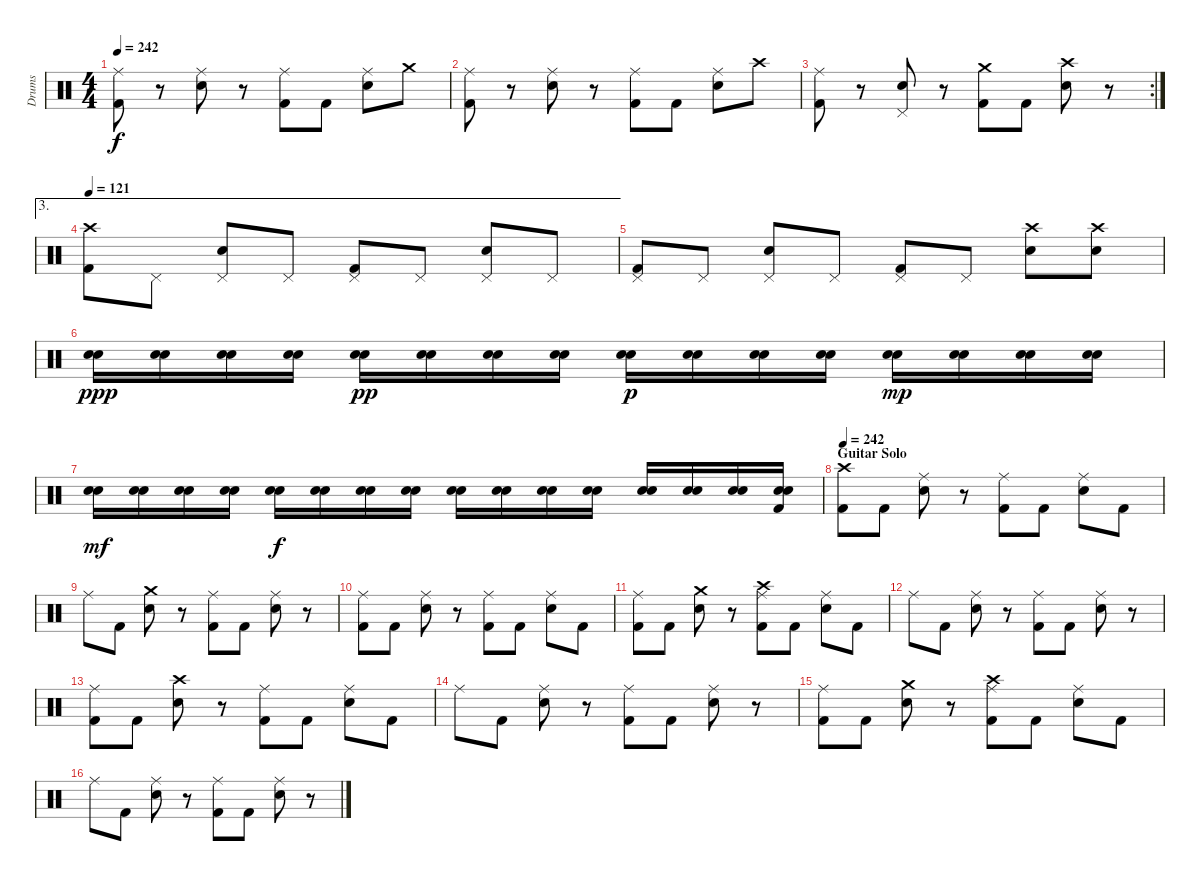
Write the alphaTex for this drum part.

\track ("Drums" "Drums") {instrument percussion}
\staff {score}
\articulation defaults
\ts (4 4)
\tempo 242
\clef neutral
\ks c
("Ride (middle)" "Kick (hit) 2").8{dy f} r.8 ("Ride (middle)" "Electric Snare (hit)").8 r.8 ("Ride (middle)" "Kick (hit) 2").8 "Kick (hit) 2".8 ("Ride (middle)" "Electric Snare (hit)").8 "Crash medium (hit)".8 |
("Ride (middle)" "Kick (hit) 2").8 r.8 ("Ride (middle)" "Electric Snare (hit)").8 r.8 ("Ride (middle)" "Kick (hit) 2").8 "Kick (hit) 2".8 ("Ride (middle)" "Electric Snare (hit)").8 "Crash high (hit)".8 |
\rc 2
("Ride (middle)" "Kick (hit) 2").8 r.8 ("Pedal Hi-Hat (hit)" "Electric Snare (hit)").8 r.8 ("Crash medium (hit)" "Kick (hit) 2").8 "Kick (hit) 2".8 ("Crash high (hit)" "Electric Snare (hit)").8 r.8 |
\ae 3
\tempo 121
("Crash high (hit)" "Kick (hit) 2").8 "Pedal Hi-Hat (hit)".8 ("Pedal Hi-Hat (hit)" "Electric Snare (hit)").8 "Pedal Hi-Hat (hit)".8 ("Pedal Hi-Hat (hit)" "Kick (hit) 2").8 "Pedal Hi-Hat (hit)".8 ("Pedal Hi-Hat (hit)" "Electric Snare (hit)").8 "Pedal Hi-Hat (hit)".8 |
("Pedal Hi-Hat (hit)" "Kick (hit) 2").8 "Pedal Hi-Hat (hit)".8 ("Pedal Hi-Hat (hit)" "Electric Snare (hit)").8 "Pedal Hi-Hat (hit)".8 ("Pedal Hi-Hat (hit)" "Kick (hit) 2").8 "Pedal Hi-Hat (hit)".8 ("Crash high (hit)" "Electric Snare (hit)").8 ("Crash high (hit)" "Electric Snare (hit)").8 |
("Electric Snare (hit)" "Electric Snare (hit)").16{dy ppp} ("Electric Snare (hit)" "Electric Snare (hit)").16 ("Electric Snare (hit)" "Electric Snare (hit)").16 ("Electric Snare (hit)" "Electric Snare (hit)").16 ("Electric Snare (hit)" "Electric Snare (hit)").16{dy pp} ("Electric Snare (hit)" "Electric Snare (hit)").16 ("Electric Snare (hit)" "Electric Snare (hit)").16 ("Electric Snare (hit)" "Electric Snare (hit)").16 ("Electric Snare (hit)" "Electric Snare (hit)").16{dy p} ("Electric Snare (hit)" "Electric Snare (hit)").16 ("Electric Snare (hit)" "Electric Snare (hit)").16 ("Electric Snare (hit)" "Electric Snare (hit)").16 ("Electric Snare (hit)" "Electric Snare (hit)").16{dy mp} ("Electric Snare (hit)" "Electric Snare (hit)").16 ("Electric Snare (hit)" "Electric Snare (hit)").16 ("Electric Snare (hit)" "Electric Snare (hit)").16 |
("Electric Snare (hit)" "Electric Snare (hit)").16{dy mf} ("Electric Snare (hit)" "Electric Snare (hit)").16 ("Electric Snare (hit)" "Electric Snare (hit)").16 ("Electric Snare (hit)" "Electric Snare (hit)").16 ("Electric Snare (hit)" "Electric Snare (hit)").16{dy f} ("Electric Snare (hit)" "Electric Snare (hit)").16 ("Electric Snare (hit)" "Electric Snare (hit)").16 ("Electric Snare (hit)" "Electric Snare (hit)").16 ("Electric Snare (hit)" "Electric Snare (hit)").16 ("Electric Snare (hit)" "Electric Snare (hit)").16 ("Electric Snare (hit)" "Electric Snare (hit)").16 ("Electric Snare (hit)" "Electric Snare (hit)").16 ("Electric Snare (hit)" "Electric Snare (hit)").16 ("Electric Snare (hit)" "Electric Snare (hit)").16 ("Electric Snare (hit)" "Electric Snare (hit)").16 ("Electric Snare (hit)" "Electric Snare (hit)" "Kick (hit) 2").16 |
\section ("" "Guitar Solo")
\tempo 242
("Crash high (hit)" "Kick (hit) 2").8 "Kick (hit) 2".8 ("Ride (middle)" "Electric Snare (hit)").8 r.8 ("Ride (middle)" "Kick (hit) 2").8 "Kick (hit) 2".8 ("Ride (middle)" "Electric Snare (hit)").8 "Kick (hit) 2".8 |
"Ride (middle)".8 "Kick (hit) 2".8 ("Electric Snare (hit)" "Crash medium (hit)").8 r.8 ("Ride (middle)" "Kick (hit) 2").8 "Kick (hit) 2".8 ("Ride (middle)" "Electric Snare (hit)").8 r.8 |
("Ride (middle)" "Kick (hit) 2").8 "Kick (hit) 2".8 ("Ride (middle)" "Electric Snare (hit)").8 r.8 ("Ride (middle)" "Kick (hit) 2").8 "Kick (hit) 2".8 ("Ride (middle)" "Electric Snare (hit)").8 "Kick (hit) 2".8 |
("Ride (middle)" "Kick (hit) 2").8 "Kick (hit) 2".8 ("Electric Snare (hit)" "Crash medium (hit)").8 r.8 ("Ride (middle)" "Crash high (hit)" "Kick (hit) 2").8 "Kick (hit) 2".8 ("Ride (middle)" "Electric Snare (hit)").8 "Kick (hit) 2".8 |
"Ride (middle)".8 "Kick (hit) 2".8 ("Ride (middle)" "Electric Snare (hit)").8 r.8 ("Ride (middle)" "Kick (hit) 2").8 "Kick (hit) 2".8 ("Ride (middle)" "Electric Snare (hit)").8 r.8 |
("Ride (middle)" "Kick (hit) 2").8 "Kick (hit) 2".8 ("Electric Snare (hit)" "Crash high (hit)").8 r.8 ("Ride (middle)" "Kick (hit) 2").8 "Kick (hit) 2".8 ("Ride (middle)" "Electric Snare (hit)").8 "Kick (hit) 2".8 |
"Ride (middle)".8 "Kick (hit) 2".8 ("Ride (middle)" "Electric Snare (hit)").8 r.8 ("Ride (middle)" "Kick (hit) 2").8 "Kick (hit) 2".8 ("Ride (middle)" "Electric Snare (hit)").8 r.8 |
("Ride (middle)" "Kick (hit) 2").8 "Kick (hit) 2".8 ("Electric Snare (hit)" "Crash medium (hit)").8 r.8 ("Ride (middle)" "Crash high (hit)" "Kick (hit) 2").8 "Kick (hit) 2".8 ("Ride (middle)" "Electric Snare (hit)").8 "Kick (hit) 2".8 |
"Ride (middle)".8 "Kick (hit) 2".8 ("Ride (middle)" "Electric Snare (hit)").8 r.8 ("Ride (middle)" "Kick (hit) 2").8 "Kick (hit) 2".8 ("Ride (middle)" "Electric Snare (hit)").8 r.8
